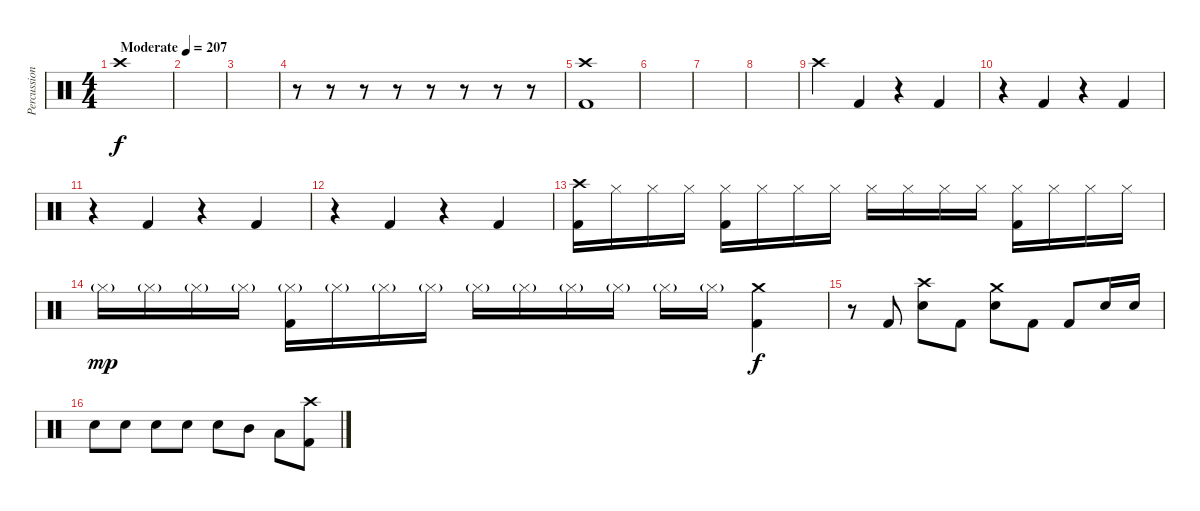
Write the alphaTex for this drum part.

\track ("Percussion" "Percussion") {instrument percussion}
\staff {score}
\articulation defaults
\ts (4 4)
\tempo (207 "Moderate")
\clef neutral
\ks c "Crash high (hit)".1{dy f}
|
|
|
r.8 r.8 r.8 r.8 r.8 r.8 r.8 r.8 |
("Crash high (hit)" "Kick (hit) 2").1 |
|
|
|
"Crash high (hit)".4 "Kick (hit) 2".4 r.4 "Kick (hit) 2".4 |
r.4 "Kick (hit) 2".4 r.4 "Kick (hit) 2".4 |
r.4 "Kick (hit) 2".4 r.4 "Kick (hit) 2".4 |
r.4 "Kick (hit) 2".4 r.4 "Kick (hit) 2".4 |
("Crash high (hit)" "Kick (hit) 2").16 "Hi-Hat (closed)".16 "Hi-Hat (closed)".16 "Hi-Hat (closed)".16 ("Hi-Hat (closed)" "Kick (hit) 2").16 "Hi-Hat (closed)".16 "Hi-Hat (closed)".16 "Hi-Hat (closed)".16 "Hi-Hat (closed)".16 "Hi-Hat (closed)".16 "Hi-Hat (closed)".16 "Hi-Hat (closed)".16 ("Hi-Hat (closed)" "Kick (hit) 2").16 "Hi-Hat (closed)".16 "Hi-Hat (closed)".16 "Hi-Hat (closed)".16 |
"Hi-Hat (closed)"{g}.16{dy mp} "Hi-Hat (closed)"{g}.16 "Hi-Hat (closed)"{g}.16 "Hi-Hat (closed)"{g}.16 ("Hi-Hat (closed)"{g} "Kick (hit) 2").16 "Hi-Hat (closed)"{g}.16 "Hi-Hat (closed)"{g}.16 "Hi-Hat (closed)"{g}.16 "Hi-Hat (closed)"{g}.16 "Hi-Hat (closed)"{g}.16 "Hi-Hat (closed)"{g}.16 "Hi-Hat (closed)"{g}.16 "Hi-Hat (closed)"{g}.16 "Hi-Hat (closed)"{g}.16 ("Crash medium (hit)" "Kick (hit) 2").4{dy f} |
r.8 "Kick (hit) 2".8 ("Crash high (hit)" "Snare (hit) 2").8 "Kick (hit) 2".8 ("Crash medium (hit)" "Snare (hit) 2").8 "Kick (hit) 2".8 "Kick (hit) 2".8 "Snare (hit) 2".16 "Snare (hit) 2".16 |
"Snare (hit) 2".8 "Snare (hit) 2".8 "Snare (hit) 2".8 "Snare (hit) 2".8 "Snare (hit) 2".8 "Mid Tom (hit)".8 "Low Tom (hit)".8 ("Crash high (hit)" "Kick (hit) 2").8
